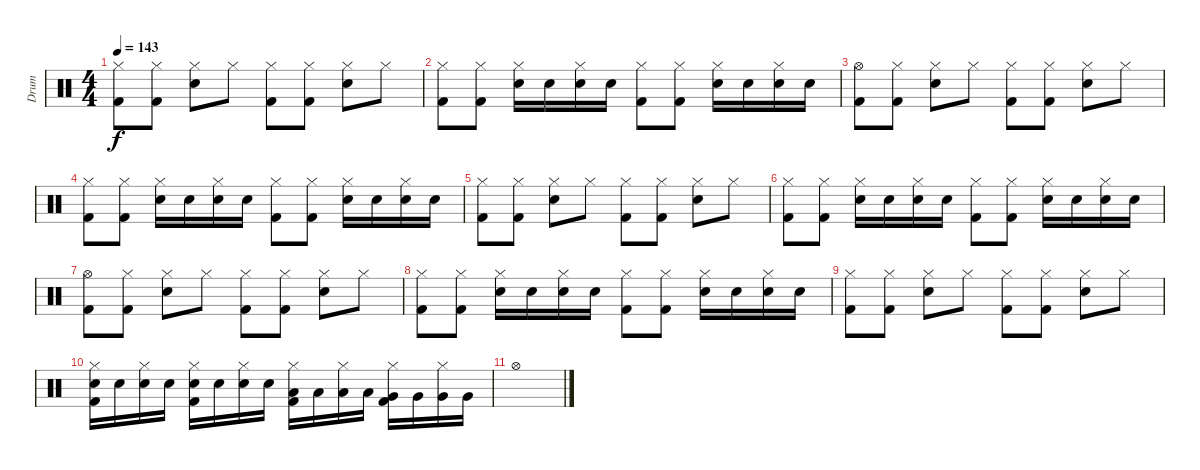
\track ("Drum" "Drum") {instrument percussion}
\staff {score}
\articulation defaults
\ts (4 4)
\tempo 143
\clef neutral
\ks c
("Hi-Hat (closed)" "Kick (hit) 2").8{dy f} ("Hi-Hat (closed)" "Kick (hit) 2").8 ("Hi-Hat (closed)" "Electric Snare (hit)").8 "Hi-Hat (closed)".8 ("Hi-Hat (closed)" "Kick (hit) 2").8 ("Hi-Hat (closed)" "Kick (hit) 2").8 ("Hi-Hat (closed)" "Electric Snare (hit)").8 "Hi-Hat (closed)".8 |
("Hi-Hat (closed)" "Kick (hit) 2").8 ("Hi-Hat (closed)" "Kick (hit) 2").8 ("Hi-Hat (closed)" "Electric Snare (hit)").16 "Electric Snare (hit)".16 ("Hi-Hat (closed)" "Electric Snare (hit)").16 "Electric Snare (hit)".16 ("Hi-Hat (closed)" "Kick (hit) 2").8 ("Hi-Hat (closed)" "Kick (hit) 2").8 ("Hi-Hat (closed)" "Electric Snare (hit)").16 "Electric Snare (hit)".16 ("Hi-Hat (closed)" "Electric Snare (hit)").16 "Electric Snare (hit)".16 |
("Hi-Hat (open)" "Kick (hit) 2").8 ("Hi-Hat (closed)" "Kick (hit) 2").8 ("Hi-Hat (closed)" "Electric Snare (hit)").8 "Hi-Hat (closed)".8 ("Hi-Hat (closed)" "Kick (hit) 2").8 ("Hi-Hat (closed)" "Kick (hit) 2").8 ("Hi-Hat (closed)" "Electric Snare (hit)").8 "Hi-Hat (closed)".8 |
("Hi-Hat (closed)" "Kick (hit) 2").8 ("Hi-Hat (closed)" "Kick (hit) 2").8 ("Hi-Hat (closed)" "Electric Snare (hit)").16 "Electric Snare (hit)".16 ("Hi-Hat (closed)" "Electric Snare (hit)").16 "Electric Snare (hit)".16 ("Hi-Hat (closed)" "Kick (hit) 2").8 ("Hi-Hat (closed)" "Kick (hit) 2").8 ("Hi-Hat (closed)" "Electric Snare (hit)").16 "Electric Snare (hit)".16 ("Hi-Hat (closed)" "Electric Snare (hit)").16 "Electric Snare (hit)".16 |
("Hi-Hat (closed)" "Kick (hit) 2").8 ("Hi-Hat (closed)" "Kick (hit) 2").8 ("Hi-Hat (closed)" "Electric Snare (hit)").8 "Hi-Hat (closed)".8 ("Hi-Hat (closed)" "Kick (hit) 2").8 ("Hi-Hat (closed)" "Kick (hit) 2").8 ("Hi-Hat (closed)" "Electric Snare (hit)").8 "Hi-Hat (closed)".8 |
("Hi-Hat (closed)" "Kick (hit) 2").8 ("Hi-Hat (closed)" "Kick (hit) 2").8 ("Hi-Hat (closed)" "Electric Snare (hit)").16 "Electric Snare (hit)".16 ("Hi-Hat (closed)" "Electric Snare (hit)").16 "Electric Snare (hit)".16 ("Hi-Hat (closed)" "Kick (hit) 2").8 ("Hi-Hat (closed)" "Kick (hit) 2").8 ("Hi-Hat (closed)" "Electric Snare (hit)").16 "Electric Snare (hit)".16 ("Hi-Hat (closed)" "Electric Snare (hit)").16 "Electric Snare (hit)".16 |
("Hi-Hat (open)" "Kick (hit) 2").8 ("Hi-Hat (closed)" "Kick (hit) 2").8 ("Hi-Hat (closed)" "Electric Snare (hit)").8 "Hi-Hat (closed)".8 ("Hi-Hat (closed)" "Kick (hit) 2").8 ("Hi-Hat (closed)" "Kick (hit) 2").8 ("Hi-Hat (closed)" "Electric Snare (hit)").8 "Hi-Hat (closed)".8 |
("Hi-Hat (closed)" "Kick (hit) 2").8 ("Hi-Hat (closed)" "Kick (hit) 2").8 ("Hi-Hat (closed)" "Electric Snare (hit)").16 "Electric Snare (hit)".16 ("Hi-Hat (closed)" "Electric Snare (hit)").16 "Electric Snare (hit)".16 ("Hi-Hat (closed)" "Kick (hit) 2").8 ("Hi-Hat (closed)" "Kick (hit) 2").8 ("Hi-Hat (closed)" "Electric Snare (hit)").16 "Electric Snare (hit)".16 ("Hi-Hat (closed)" "Electric Snare (hit)").16 "Electric Snare (hit)".16 |
("Hi-Hat (closed)" "Kick (hit) 2").8 ("Hi-Hat (closed)" "Kick (hit) 2").8 ("Hi-Hat (closed)" "Electric Snare (hit)").8 "Hi-Hat (closed)".8 ("Hi-Hat (closed)" "Kick (hit) 2").8 ("Hi-Hat (closed)" "Kick (hit) 2").8 ("Hi-Hat (closed)" "Electric Snare (hit)").8 "Hi-Hat (closed)".8 |
("Hi-Hat (closed)" "Electric Snare (hit)" "Kick (hit) 2").16 "Electric Snare (hit)".16 ("Hi-Hat (closed)" "Electric Snare (hit)").16 "Electric Snare (hit)".16 ("Hi-Hat (closed)" "Electric Snare (hit)" "Kick (hit) 2").16 "Electric Snare (hit)".16 ("Hi-Hat (closed)" "Electric Snare (hit)").16 "Electric Snare (hit)".16 ("Hi-Hat (closed)" "Low Tom (hit)" "Kick (hit) 2").16 "Low Tom (hit)".16 ("Hi-Hat (closed)" "Low Tom (hit)").16 "Low Tom (hit)".16 ("Hi-Hat (closed)" "Very Low Tom (hit)" "Kick (hit) 2").16 "Very Low Tom (hit)".16 ("Hi-Hat (closed)" "Very Low Tom (hit)").16 "Very Low Tom (hit)".16 |
"Hi-Hat (open)".1
